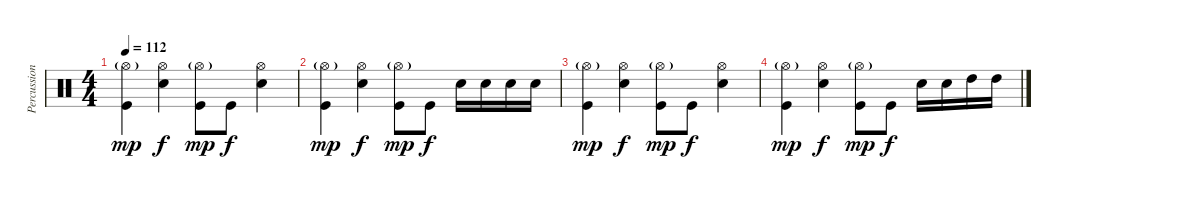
\track ("Percussion" "Percussion") {instrument percussion}
\staff {score}
\articulation defaults
\ts (4 4)
\tempo 112
\clef neutral
\ks c
("Hi-Hat (open)"{g} "Kick (hit)").4{dy mp} ("Hi-Hat (open)" "Snare (hit) 2").4{dy f} ("Hi-Hat (open)"{g} "Kick (hit)").8{dy mp} "Kick (hit)".8{dy f} ("Hi-Hat (open)" "Snare (hit) 2").4 |
("Hi-Hat (open)"{g} "Kick (hit)").4{dy mp} ("Hi-Hat (open)" "Snare (hit) 2").4{dy f} ("Hi-Hat (open)"{g} "Kick (hit)").8{dy mp} "Kick (hit)".8{dy f} "Snare (hit) 2".16 "Snare (hit) 2".16 "Snare (hit) 2".16 "Snare (hit) 2".16 |
("Hi-Hat (open)"{g} "Kick (hit)").4{dy mp} ("Hi-Hat (open)" "Snare (hit) 2").4{dy f} ("Hi-Hat (open)"{g} "Kick (hit)").8{dy mp} "Kick (hit)".8{dy f} ("Hi-Hat (open)" "Snare (hit) 2").4 |
("Hi-Hat (open)"{g} "Kick (hit)").4{dy mp} ("Hi-Hat (open)" "Snare (hit) 2").4{dy f} ("Hi-Hat (open)"{g} "Kick (hit)").8{dy mp} "Kick (hit)".8{dy f} "Snare (hit) 2".16 "Snare (hit) 2".16 "High Tom (hit)".16 "High Tom (hit)".16
